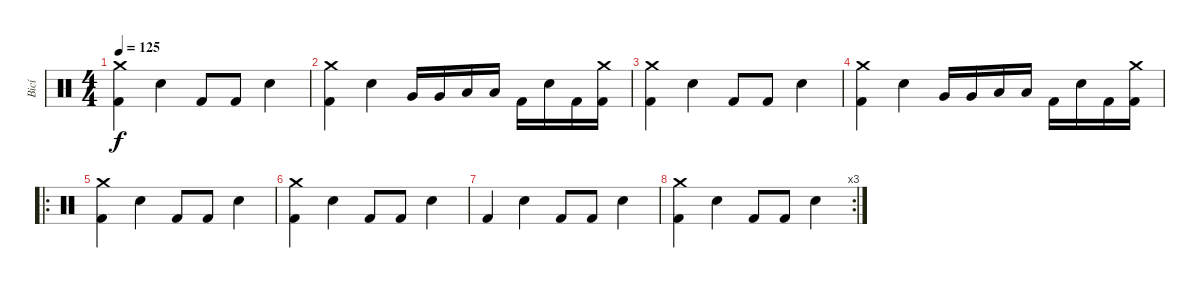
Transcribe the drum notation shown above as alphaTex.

\track ("Bicí" "Bicí") {instrument percussion}
\staff {score}
\articulation defaults
\ts (4 4)
\tempo 125
\clef neutral
\ks c
("Crash medium (hit)" "Kick (hit) 2").4{dy f} "Electric Snare (hit)".4 "Kick (hit) 2".8 "Kick (hit) 2".8 "Electric Snare (hit)".4 |
("Crash medium (hit)" "Kick (hit) 2").4 "Electric Snare (hit)".4 "Very Low Tom (hit)".16 "Very Low Tom (hit)".16 "Low Floor Tom (hit)".16 "Low Floor Tom (hit)".16 "Kick (hit) 2".16 "Electric Snare (hit)".16 "Kick (hit) 2".16 ("Crash medium (hit)" "Kick (hit) 2").16 |
("Crash medium (hit)" "Kick (hit) 2").4 "Electric Snare (hit)".4 "Kick (hit) 2".8 "Kick (hit) 2".8 "Electric Snare (hit)".4 |
("Crash medium (hit)" "Kick (hit) 2").4 "Electric Snare (hit)".4 "Very Low Tom (hit)".16 "Very Low Tom (hit)".16 "Low Floor Tom (hit)".16 "Low Floor Tom (hit)".16 "Kick (hit) 2".16 "Electric Snare (hit)".16 "Kick (hit) 2".16 ("Crash medium (hit)" "Kick (hit) 2").16 |
\ro
("Crash medium (hit)" "Kick (hit) 2").4 "Electric Snare (hit)".4 "Kick (hit) 2".8 "Kick (hit) 2".8 "Electric Snare (hit)".4 |
("Crash medium (hit)" "Kick (hit) 2").4 "Electric Snare (hit)".4 "Kick (hit) 2".8 "Kick (hit) 2".8 "Electric Snare (hit)".4 |
"Kick (hit) 2".4 "Electric Snare (hit)".4 "Kick (hit) 2".8 "Kick (hit) 2".8 "Electric Snare (hit)".4 |
\rc 3
("Crash medium (hit)" "Kick (hit) 2").4 "Electric Snare (hit)".4 "Kick (hit) 2".8 "Kick (hit) 2".8 "Electric Snare (hit)".4
